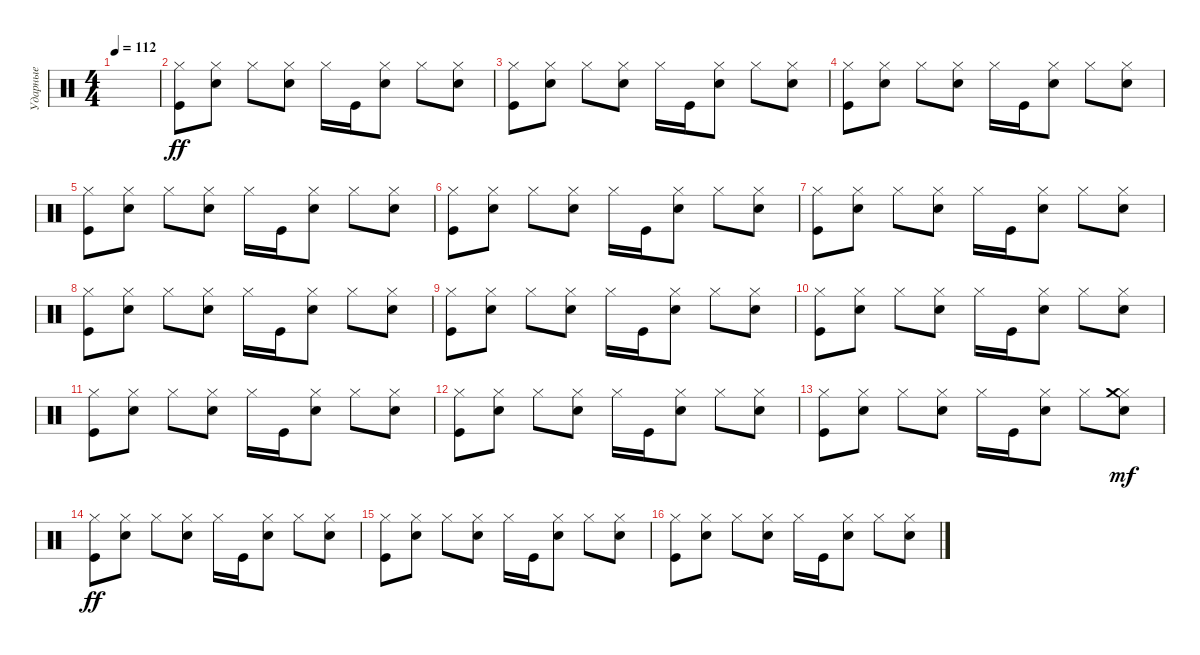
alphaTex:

\track ("Ударные" "Ударные") {instrument percussion}
\staff {score}
\articulation defaults
\ts (4 4)
\tempo 112
\clef neutral
\ks c
|
("Hi-Hat (closed)" "Kick (hit)").8{dy ff} ("Hi-Hat (closed)" "Snare (hit) 2").8 "Hi-Hat (closed)".8 ("Hi-Hat (closed)" "Snare (hit) 2").8 "Hi-Hat (closed)".16 "Kick (hit)".16 ("Hi-Hat (closed)" "Snare (hit) 2").8 "Hi-Hat (closed)".8 ("Hi-Hat (closed)" "Snare (hit) 2").8 |
("Hi-Hat (closed)" "Kick (hit)").8 ("Hi-Hat (closed)" "Snare (hit) 2").8 "Hi-Hat (closed)".8 ("Hi-Hat (closed)" "Snare (hit) 2").8 "Hi-Hat (closed)".16 "Kick (hit)".16 ("Hi-Hat (closed)" "Snare (hit) 2").8 "Hi-Hat (closed)".8 ("Hi-Hat (closed)" "Snare (hit) 2").8 |
("Hi-Hat (closed)" "Kick (hit)").8 ("Hi-Hat (closed)" "Snare (hit) 2").8 "Hi-Hat (closed)".8 ("Hi-Hat (closed)" "Snare (hit) 2").8 "Hi-Hat (closed)".16 "Kick (hit)".16 ("Hi-Hat (closed)" "Snare (hit) 2").8 "Hi-Hat (closed)".8 ("Hi-Hat (closed)" "Snare (hit) 2").8 |
("Hi-Hat (closed)" "Kick (hit)").8 ("Hi-Hat (closed)" "Snare (hit) 2").8 "Hi-Hat (closed)".8 ("Hi-Hat (closed)" "Snare (hit) 2").8 "Hi-Hat (closed)".16 "Kick (hit)".16 ("Hi-Hat (closed)" "Snare (hit) 2").8 "Hi-Hat (closed)".8 ("Hi-Hat (closed)" "Snare (hit) 2").8 |
("Hi-Hat (closed)" "Kick (hit)").8 ("Hi-Hat (closed)" "Snare (hit) 2").8 "Hi-Hat (closed)".8 ("Hi-Hat (closed)" "Snare (hit) 2").8 "Hi-Hat (closed)".16 "Kick (hit)".16 ("Hi-Hat (closed)" "Snare (hit) 2").8 "Hi-Hat (closed)".8 ("Hi-Hat (closed)" "Snare (hit) 2").8 |
("Hi-Hat (closed)" "Kick (hit)").8 ("Hi-Hat (closed)" "Snare (hit) 2").8 "Hi-Hat (closed)".8 ("Hi-Hat (closed)" "Snare (hit) 2").8 "Hi-Hat (closed)".16 "Kick (hit)".16 ("Hi-Hat (closed)" "Snare (hit) 2").8 "Hi-Hat (closed)".8 ("Hi-Hat (closed)" "Snare (hit) 2").8 |
("Hi-Hat (closed)" "Kick (hit)").8 ("Hi-Hat (closed)" "Snare (hit) 2").8 "Hi-Hat (closed)".8 ("Hi-Hat (closed)" "Snare (hit) 2").8 "Hi-Hat (closed)".16 "Kick (hit)".16 ("Hi-Hat (closed)" "Snare (hit) 2").8 "Hi-Hat (closed)".8 ("Hi-Hat (closed)" "Snare (hit) 2").8 |
("Hi-Hat (closed)" "Kick (hit)").8 ("Hi-Hat (closed)" "Snare (hit) 2").8 "Hi-Hat (closed)".8 ("Hi-Hat (closed)" "Snare (hit) 2").8 "Hi-Hat (closed)".16 "Kick (hit)".16 ("Hi-Hat (closed)" "Snare (hit) 2").8 "Hi-Hat (closed)".8 ("Hi-Hat (closed)" "Snare (hit) 2").8 |
("Hi-Hat (closed)" "Kick (hit)").8 ("Hi-Hat (closed)" "Snare (hit) 2").8 "Hi-Hat (closed)".8 ("Hi-Hat (closed)" "Snare (hit) 2").8 "Hi-Hat (closed)".16 "Kick (hit)".16 ("Hi-Hat (closed)" "Snare (hit) 2").8 "Hi-Hat (closed)".8 ("Hi-Hat (closed)" "Snare (hit) 2").8 |
("Hi-Hat (closed)" "Kick (hit)").8 ("Hi-Hat (closed)" "Snare (hit) 2").8 "Hi-Hat (closed)".8 ("Hi-Hat (closed)" "Snare (hit) 2").8 "Hi-Hat (closed)".16 "Kick (hit)".16 ("Hi-Hat (closed)" "Snare (hit) 2").8 "Hi-Hat (closed)".8 ("Hi-Hat (closed)" "Snare (hit) 2").8 |
("Hi-Hat (closed)" "Kick (hit)").8 ("Hi-Hat (closed)" "Snare (hit) 2").8 "Hi-Hat (closed)".8 ("Hi-Hat (closed)" "Snare (hit) 2").8 "Hi-Hat (closed)".16 "Kick (hit)".16 ("Hi-Hat (closed)" "Snare (hit) 2").8 "Hi-Hat (closed)".8 ("Hi-Hat (closed)" "Snare (hit) 2").8 |
("Hi-Hat (closed)" "Kick (hit)").8 ("Hi-Hat (closed)" "Snare (hit) 2").8 "Hi-Hat (closed)".8 ("Hi-Hat (closed)" "Snare (hit) 2").8 "Hi-Hat (closed)".16 "Kick (hit)".16 ("Hi-Hat (closed)" "Snare (hit) 2").8 "Hi-Hat (closed)".8 ("Hi-Hat (closed)" "Snare (hit) 2" "Crash medium (hit)").8{dy mf} |
("Hi-Hat (closed)" "Kick (hit)").8{dy ff} ("Hi-Hat (closed)" "Snare (hit) 2").8 "Hi-Hat (closed)".8 ("Hi-Hat (closed)" "Snare (hit) 2").8 "Hi-Hat (closed)".16 "Kick (hit)".16 ("Hi-Hat (closed)" "Snare (hit) 2").8 "Hi-Hat (closed)".8 ("Hi-Hat (closed)" "Snare (hit) 2").8 |
("Hi-Hat (closed)" "Kick (hit)").8 ("Hi-Hat (closed)" "Snare (hit) 2").8 "Hi-Hat (closed)".8 ("Hi-Hat (closed)" "Snare (hit) 2").8 "Hi-Hat (closed)".16 "Kick (hit)".16 ("Hi-Hat (closed)" "Snare (hit) 2").8 "Hi-Hat (closed)".8 ("Hi-Hat (closed)" "Snare (hit) 2").8 |
("Hi-Hat (closed)" "Kick (hit)").8 ("Hi-Hat (closed)" "Snare (hit) 2").8 "Hi-Hat (closed)".8 ("Hi-Hat (closed)" "Snare (hit) 2").8 "Hi-Hat (closed)".16 "Kick (hit)".16 ("Hi-Hat (closed)" "Snare (hit) 2").8 "Hi-Hat (closed)".8 ("Hi-Hat (closed)" "Snare (hit) 2").8
